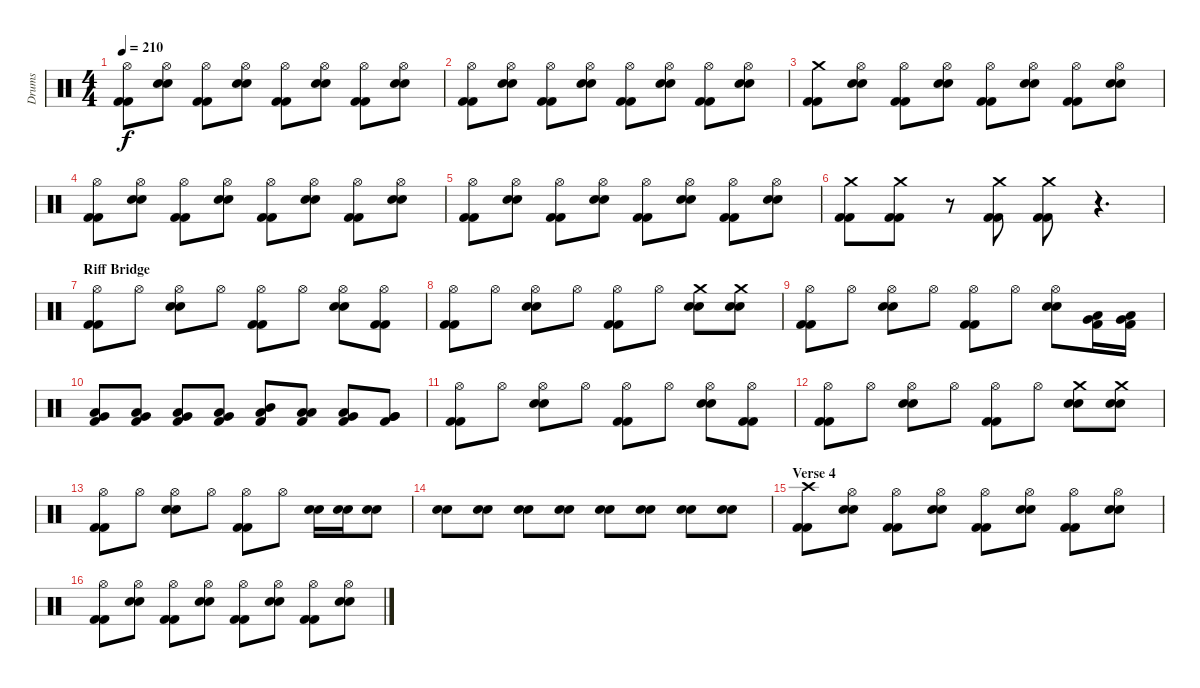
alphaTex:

\track ("Drums" "Drums") {instrument percussion}
\staff {score}
\articulation defaults
\ts (4 4)
\tempo 210
\clef neutral
\ks c
("Hi-Hat (open)" "Kick (hit) 2" "Kick (hit) 2").8{dy f} ("Hi-Hat (open)" "Snare (hit) 2" "Snare (hit) 2").8 ("Hi-Hat (open)" "Kick (hit) 2" "Kick (hit) 2").8 ("Hi-Hat (open)" "Snare (hit) 2" "Snare (hit) 2").8 ("Hi-Hat (open)" "Kick (hit) 2" "Kick (hit) 2").8 ("Hi-Hat (open)" "Snare (hit) 2" "Snare (hit) 2").8 ("Hi-Hat (open)" "Kick (hit) 2" "Kick (hit) 2").8 ("Hi-Hat (open)" "Snare (hit) 2" "Snare (hit) 2").8 |
("Hi-Hat (open)" "Kick (hit) 2" "Kick (hit) 2").8 ("Hi-Hat (open)" "Snare (hit) 2" "Snare (hit) 2").8 ("Hi-Hat (open)" "Kick (hit) 2" "Kick (hit) 2").8 ("Hi-Hat (open)" "Snare (hit) 2" "Snare (hit) 2").8 ("Hi-Hat (open)" "Kick (hit) 2" "Kick (hit) 2").8 ("Hi-Hat (open)" "Snare (hit) 2" "Snare (hit) 2").8 ("Hi-Hat (open)" "Kick (hit) 2" "Kick (hit) 2").8 ("Hi-Hat (open)" "Snare (hit) 2" "Snare (hit) 2").8 |
("Crash medium (hit)" "Kick (hit) 2" "Kick (hit) 2").8 ("Hi-Hat (open)" "Snare (hit) 2" "Snare (hit) 2").8 ("Hi-Hat (open)" "Kick (hit) 2" "Kick (hit) 2").8 ("Hi-Hat (open)" "Snare (hit) 2" "Snare (hit) 2").8 ("Hi-Hat (open)" "Kick (hit) 2" "Kick (hit) 2").8 ("Hi-Hat (open)" "Snare (hit) 2" "Snare (hit) 2").8 ("Hi-Hat (open)" "Kick (hit) 2" "Kick (hit) 2").8 ("Hi-Hat (open)" "Snare (hit) 2" "Snare (hit) 2").8 |
("Hi-Hat (open)" "Kick (hit) 2" "Kick (hit) 2").8 ("Hi-Hat (open)" "Snare (hit) 2" "Snare (hit) 2").8 ("Hi-Hat (open)" "Kick (hit) 2" "Kick (hit) 2").8 ("Hi-Hat (open)" "Snare (hit) 2" "Snare (hit) 2").8 ("Hi-Hat (open)" "Kick (hit) 2" "Kick (hit) 2").8 ("Hi-Hat (open)" "Snare (hit) 2" "Snare (hit) 2").8 ("Hi-Hat (open)" "Kick (hit) 2" "Kick (hit) 2").8 ("Hi-Hat (open)" "Snare (hit) 2" "Snare (hit) 2").8 |
("Hi-Hat (open)" "Kick (hit) 2" "Kick (hit) 2").8 ("Hi-Hat (open)" "Snare (hit) 2" "Snare (hit) 2").8 ("Hi-Hat (open)" "Kick (hit) 2" "Kick (hit) 2").8 ("Hi-Hat (open)" "Snare (hit) 2" "Snare (hit) 2").8 ("Hi-Hat (open)" "Kick (hit) 2" "Kick (hit) 2").8 ("Hi-Hat (open)" "Snare (hit) 2" "Snare (hit) 2").8 ("Hi-Hat (open)" "Kick (hit) 2" "Kick (hit) 2").8 ("Hi-Hat (open)" "Snare (hit) 2" "Snare (hit) 2").8 |
("Crash medium (hit)" "Kick (hit) 2" "Kick (hit) 2").8 ("Crash medium (hit)" "Kick (hit) 2" "Kick (hit) 2").8 r.8 ("Crash medium (hit)" "Kick (hit) 2" "Kick (hit) 2").8 ("Crash medium (hit)" "Kick (hit) 2" "Kick (hit) 2").8 r.4{d} |
\section ("" "Riff Bridge")
("Hi-Hat (open)" "Kick (hit) 2" "Kick (hit) 2").8 "Hi-Hat (open)".8 ("Hi-Hat (open)" "Snare (hit) 2" "Snare (hit) 2").8 "Hi-Hat (open)".8 ("Hi-Hat (open)" "Kick (hit) 2" "Kick (hit) 2").8 "Hi-Hat (open)".8 ("Hi-Hat (open)" "Snare (hit) 2" "Snare (hit) 2").8 ("Hi-Hat (open)" "Kick (hit) 2" "Kick (hit) 2").8 |
("Hi-Hat (open)" "Kick (hit) 2" "Kick (hit) 2").8 "Hi-Hat (open)".8 ("Hi-Hat (open)" "Snare (hit) 2" "Snare (hit) 2").8 "Hi-Hat (open)".8 ("Hi-Hat (open)" "Kick (hit) 2" "Kick (hit) 2").8 "Hi-Hat (open)".8 ("Crash medium (hit)" "Snare (hit) 2" "Snare (hit) 2").8 ("Crash medium (hit)" "Snare (hit) 2" "Snare (hit) 2").8 |
("Hi-Hat (open)" "Kick (hit) 2" "Kick (hit) 2").8 "Hi-Hat (open)".8 ("Hi-Hat (open)" "Snare (hit) 2" "Snare (hit) 2").8 "Hi-Hat (open)".8 ("Hi-Hat (open)" "Kick (hit) 2" "Kick (hit) 2").8 "Hi-Hat (open)".8 ("Hi-Hat (open)" "Snare (hit) 2" "Snare (hit) 2").8 ("Low Tom (hit)" "Very Low Tom (hit)" "Kick (hit) 2").16 ("Low Tom (hit)" "Very Low Tom (hit)" "Kick (hit) 2").16 |
("Low Tom (hit)" "Very Low Tom (hit)" "Kick (hit) 2").8 ("Low Tom (hit)" "Very Low Tom (hit)" "Kick (hit) 2").8 ("Low Tom (hit)" "Very Low Tom (hit)" "Kick (hit) 2").8 ("Low Tom (hit)" "Very Low Tom (hit)" "Kick (hit) 2").8 ("Mid Tom (hit)" "Low Tom (hit)" "Kick (hit) 2").8 ("Low Tom (hit)" "Low Tom (hit)" "Kick (hit) 2").8 ("Very Low Tom (hit)" "Low Tom (hit)" "Kick (hit) 2").8 ("Very Low Tom (hit)" "Very Low Tom (hit)" "Kick (hit) 2").8 |
("Hi-Hat (open)" "Kick (hit) 2" "Kick (hit) 2").8 "Hi-Hat (open)".8 ("Hi-Hat (open)" "Snare (hit) 2" "Snare (hit) 2").8 "Hi-Hat (open)".8 ("Hi-Hat (open)" "Kick (hit) 2" "Kick (hit) 2").8 "Hi-Hat (open)".8 ("Hi-Hat (open)" "Snare (hit) 2" "Snare (hit) 2").8 ("Hi-Hat (open)" "Kick (hit) 2" "Kick (hit) 2").8 |
("Hi-Hat (open)" "Kick (hit) 2" "Kick (hit) 2").8 "Hi-Hat (open)".8 ("Hi-Hat (open)" "Snare (hit) 2" "Snare (hit) 2").8 "Hi-Hat (open)".8 ("Hi-Hat (open)" "Kick (hit) 2" "Kick (hit) 2").8 "Hi-Hat (open)".8 ("Crash medium (hit)" "Snare (hit) 2" "Snare (hit) 2").8 ("Crash medium (hit)" "Snare (hit) 2" "Snare (hit) 2").8 |
("Hi-Hat (open)" "Kick (hit) 2" "Kick (hit) 2").8 "Hi-Hat (open)".8 ("Hi-Hat (open)" "Snare (hit) 2" "Snare (hit) 2").8 "Hi-Hat (open)".8 ("Hi-Hat (open)" "Kick (hit) 2" "Kick (hit) 2").8 "Hi-Hat (open)".8 ("Snare (hit) 2" "Snare (hit) 2").16 ("Snare (hit) 2" "Snare (hit) 2").16 ("Snare (hit) 2" "Snare (hit) 2").8 |
("Snare (hit) 2" "Snare (hit) 2").8 ("Snare (hit) 2" "Snare (hit) 2").8 ("Snare (hit) 2" "Snare (hit) 2").8 ("Snare (hit) 2" "Snare (hit) 2").8 ("Snare (hit) 2" "Snare (hit) 2").8 ("Snare (hit) 2" "Snare (hit) 2").8 ("Snare (hit) 2" "Snare (hit) 2").8 ("Snare (hit) 2" "Snare (hit) 2").8 |
\section ("" "Verse 4")
("Crash high (hit)" "Kick (hit) 2" "Kick (hit) 2").8 ("Hi-Hat (open)" "Snare (hit) 2" "Snare (hit) 2").8 ("Hi-Hat (open)" "Kick (hit) 2" "Kick (hit) 2").8 ("Hi-Hat (open)" "Snare (hit) 2" "Snare (hit) 2").8 ("Hi-Hat (open)" "Kick (hit) 2" "Kick (hit) 2").8 ("Hi-Hat (open)" "Snare (hit) 2" "Snare (hit) 2").8 ("Hi-Hat (open)" "Kick (hit) 2" "Kick (hit) 2").8 ("Hi-Hat (open)" "Snare (hit) 2" "Snare (hit) 2").8 |
("Hi-Hat (open)" "Kick (hit) 2" "Kick (hit) 2").8 ("Hi-Hat (open)" "Snare (hit) 2" "Snare (hit) 2").8 ("Hi-Hat (open)" "Kick (hit) 2" "Kick (hit) 2").8 ("Hi-Hat (open)" "Snare (hit) 2" "Snare (hit) 2").8 ("Hi-Hat (open)" "Kick (hit) 2" "Kick (hit) 2").8 ("Hi-Hat (open)" "Snare (hit) 2" "Snare (hit) 2").8 ("Hi-Hat (open)" "Kick (hit) 2" "Kick (hit) 2").8 ("Hi-Hat (open)" "Snare (hit) 2" "Snare (hit) 2").8
